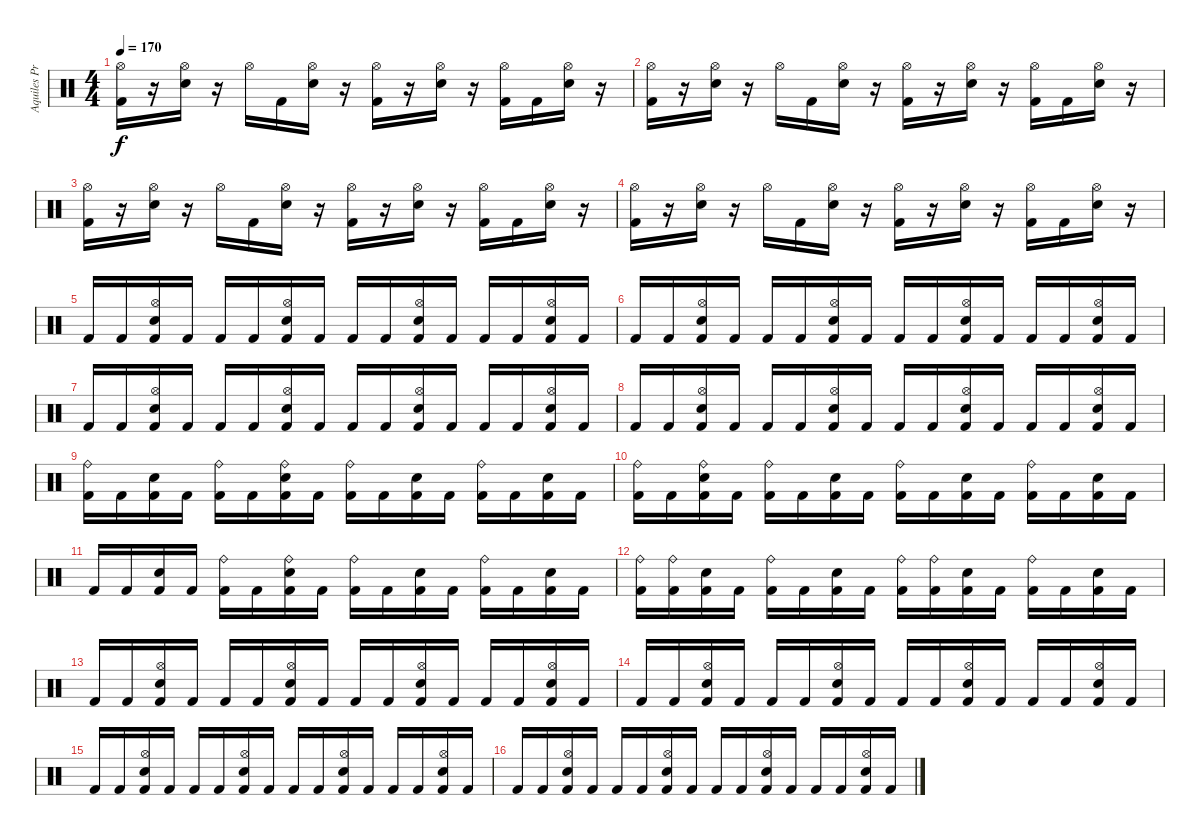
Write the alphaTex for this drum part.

\track ("Aquiles Priester" "Aquiles Pr") {instrument percussion}
\staff {score}
\articulation defaults
\ts (4 4)
\tempo 170
\clef neutral
\ks c
("Kick (hit) 2" "Hi-Hat (open)").16{dy f} r.16 ("Snare (hit) 2" "Hi-Hat (open)").16 r.16 "Hi-Hat (open)".16 "Kick (hit) 2".16 ("Snare (hit) 2" "Hi-Hat (open)").16 r.16 ("Kick (hit) 2" "Hi-Hat (open)").16 r.16 ("Snare (hit) 2" "Hi-Hat (open)").16 r.16 ("Kick (hit) 2" "Hi-Hat (open)").16 "Kick (hit) 2".16 ("Snare (hit) 2" "Hi-Hat (open)").16 r.16 |
("Kick (hit) 2" "Hi-Hat (open)").16 r.16 ("Snare (hit) 2" "Hi-Hat (open)").16 r.16 "Hi-Hat (open)".16 "Kick (hit) 2".16 ("Snare (hit) 2" "Hi-Hat (open)").16 r.16 ("Kick (hit) 2" "Hi-Hat (open)").16 r.16 ("Snare (hit) 2" "Hi-Hat (open)").16 r.16 ("Kick (hit) 2" "Hi-Hat (open)").16 "Kick (hit) 2".16 ("Snare (hit) 2" "Hi-Hat (open)").16 r.16 |
("Kick (hit) 2" "Hi-Hat (open)").16 r.16 ("Snare (hit) 2" "Hi-Hat (open)").16 r.16 "Hi-Hat (open)".16 "Kick (hit) 2".16 ("Snare (hit) 2" "Hi-Hat (open)").16 r.16 ("Kick (hit) 2" "Hi-Hat (open)").16 r.16 ("Snare (hit) 2" "Hi-Hat (open)").16 r.16 ("Kick (hit) 2" "Hi-Hat (open)").16 "Kick (hit) 2".16 ("Snare (hit) 2" "Hi-Hat (open)").16 r.16 |
("Kick (hit) 2" "Hi-Hat (open)").16 r.16 ("Snare (hit) 2" "Hi-Hat (open)").16 r.16 "Hi-Hat (open)".16 "Kick (hit) 2".16 ("Snare (hit) 2" "Hi-Hat (open)").16 r.16 ("Kick (hit) 2" "Hi-Hat (open)").16 r.16 ("Snare (hit) 2" "Hi-Hat (open)").16 r.16 ("Kick (hit) 2" "Hi-Hat (open)").16 "Kick (hit) 2".16 ("Snare (hit) 2" "Hi-Hat (open)").16 r.16 |
"Kick (hit) 2".16 "Kick (hit) 2".16 ("Kick (hit) 2" "Snare (hit) 2" "Hi-Hat (open)").16 "Kick (hit) 2".16 "Kick (hit) 2".16 "Kick (hit) 2".16 ("Kick (hit) 2" "Snare (hit) 2" "Hi-Hat (open)").16 "Kick (hit) 2".16 "Kick (hit) 2".16 "Kick (hit) 2".16 ("Kick (hit) 2" "Snare (hit) 2" "Hi-Hat (open)").16 "Kick (hit) 2".16 "Kick (hit) 2".16 "Kick (hit) 2".16 ("Kick (hit) 2" "Snare (hit) 2" "Hi-Hat (open)").16 "Kick (hit) 2".16 |
"Kick (hit) 2".16 "Kick (hit) 2".16 ("Kick (hit) 2" "Snare (hit) 2" "Hi-Hat (open)").16 "Kick (hit) 2".16 "Kick (hit) 2".16 "Kick (hit) 2".16 ("Kick (hit) 2" "Snare (hit) 2" "Hi-Hat (open)").16 "Kick (hit) 2".16 "Kick (hit) 2".16 "Kick (hit) 2".16 ("Kick (hit) 2" "Snare (hit) 2" "Hi-Hat (open)").16 "Kick (hit) 2".16 "Kick (hit) 2".16 "Kick (hit) 2".16 ("Kick (hit) 2" "Snare (hit) 2" "Hi-Hat (open)").16 "Kick (hit) 2".16 |
"Kick (hit) 2".16 "Kick (hit) 2".16 ("Kick (hit) 2" "Snare (hit) 2" "Hi-Hat (open)").16 "Kick (hit) 2".16 "Kick (hit) 2".16 "Kick (hit) 2".16 ("Kick (hit) 2" "Snare (hit) 2" "Hi-Hat (open)").16 "Kick (hit) 2".16 "Kick (hit) 2".16 "Kick (hit) 2".16 ("Kick (hit) 2" "Snare (hit) 2" "Hi-Hat (open)").16 "Kick (hit) 2".16 "Kick (hit) 2".16 "Kick (hit) 2".16 ("Kick (hit) 2" "Snare (hit) 2" "Hi-Hat (open)").16 "Kick (hit) 2".16 |
"Kick (hit) 2".16 "Kick (hit) 2".16 ("Kick (hit) 2" "Snare (hit) 2" "Hi-Hat (open)").16 "Kick (hit) 2".16 "Kick (hit) 2".16 "Kick (hit) 2".16 ("Kick (hit) 2" "Snare (hit) 2" "Hi-Hat (open)").16 "Kick (hit) 2".16 "Kick (hit) 2".16 "Kick (hit) 2".16 ("Kick (hit) 2" "Snare (hit) 2" "Hi-Hat (open)").16 "Kick (hit) 2".16 "Kick (hit) 2".16 "Kick (hit) 2".16 ("Kick (hit) 2" "Snare (hit) 2" "Hi-Hat (open)").16 "Kick (hit) 2".16 |
("Kick (hit) 2" "Ride (bell)").16 "Kick (hit) 2".16 ("Kick (hit) 2" "Snare (hit) 2").16 "Kick (hit) 2".16 ("Kick (hit) 2" "Ride (bell)").16 "Kick (hit) 2".16 ("Kick (hit) 2" "Snare (hit) 2" "Ride (bell)").16 "Kick (hit) 2".16 ("Kick (hit) 2" "Ride (bell)").16 "Kick (hit) 2".16 ("Kick (hit) 2" "Snare (hit) 2").16 "Kick (hit) 2".16 ("Kick (hit) 2" "Ride (bell)").16 "Kick (hit) 2".16 ("Kick (hit) 2" "Snare (hit) 2").16 "Kick (hit) 2".16 |
("Kick (hit) 2" "Ride (bell)").16 "Kick (hit) 2".16 ("Kick (hit) 2" "Snare (hit) 2" "Ride (bell)").16 "Kick (hit) 2".16 ("Kick (hit) 2" "Ride (bell)").16 "Kick (hit) 2".16 ("Kick (hit) 2" "Snare (hit) 2").16 "Kick (hit) 2".16 ("Kick (hit) 2" "Ride (bell)").16 "Kick (hit) 2".16 ("Kick (hit) 2" "Snare (hit) 2").16 "Kick (hit) 2".16 ("Kick (hit) 2" "Ride (bell)").16 "Kick (hit) 2".16 ("Kick (hit) 2" "Snare (hit) 2").16 "Kick (hit) 2".16 |
"Kick (hit) 2".16 "Kick (hit) 2".16 ("Kick (hit) 2" "Snare (hit) 2").16 "Kick (hit) 2".16 ("Kick (hit) 2" "Ride (bell)").16 "Kick (hit) 2".16 ("Kick (hit) 2" "Snare (hit) 2" "Ride (bell)").16 "Kick (hit) 2".16 ("Kick (hit) 2" "Ride (bell)").16 "Kick (hit) 2".16 ("Kick (hit) 2" "Snare (hit) 2").16 "Kick (hit) 2".16 ("Kick (hit) 2" "Ride (bell)").16 "Kick (hit) 2".16 ("Kick (hit) 2" "Snare (hit) 2").16 "Kick (hit) 2".16 |
("Kick (hit) 2" "Ride (bell)").16 ("Kick (hit) 2" "Ride (bell)").16 ("Kick (hit) 2" "Snare (hit) 2").16 "Kick (hit) 2".16 ("Kick (hit) 2" "Ride (bell)").16 "Kick (hit) 2".16 ("Kick (hit) 2" "Snare (hit) 2").16 "Kick (hit) 2".16 ("Kick (hit) 2" "Ride (bell)").16 ("Kick (hit) 2" "Ride (bell)").16 ("Kick (hit) 2" "Snare (hit) 2").16 "Kick (hit) 2".16 ("Kick (hit) 2" "Ride (bell)").16 "Kick (hit) 2".16 ("Kick (hit) 2" "Snare (hit) 2").16 "Kick (hit) 2".16 |
"Kick (hit) 2".16 "Kick (hit) 2".16 ("Kick (hit) 2" "Snare (hit) 2" "Hi-Hat (open)").16 "Kick (hit) 2".16 "Kick (hit) 2".16 "Kick (hit) 2".16 ("Kick (hit) 2" "Snare (hit) 2" "Hi-Hat (open)").16 "Kick (hit) 2".16 "Kick (hit) 2".16 "Kick (hit) 2".16 ("Kick (hit) 2" "Snare (hit) 2" "Hi-Hat (open)").16 "Kick (hit) 2".16 "Kick (hit) 2".16 "Kick (hit) 2".16 ("Kick (hit) 2" "Snare (hit) 2" "Hi-Hat (open)").16 "Kick (hit) 2".16 |
"Kick (hit) 2".16 "Kick (hit) 2".16 ("Kick (hit) 2" "Snare (hit) 2" "Hi-Hat (open)").16 "Kick (hit) 2".16 "Kick (hit) 2".16 "Kick (hit) 2".16 ("Kick (hit) 2" "Snare (hit) 2" "Hi-Hat (open)").16 "Kick (hit) 2".16 "Kick (hit) 2".16 "Kick (hit) 2".16 ("Kick (hit) 2" "Snare (hit) 2" "Hi-Hat (open)").16 "Kick (hit) 2".16 "Kick (hit) 2".16 "Kick (hit) 2".16 ("Kick (hit) 2" "Snare (hit) 2" "Hi-Hat (open)").16 "Kick (hit) 2".16 |
"Kick (hit) 2".16 "Kick (hit) 2".16 ("Kick (hit) 2" "Snare (hit) 2" "Hi-Hat (open)").16 "Kick (hit) 2".16 "Kick (hit) 2".16 "Kick (hit) 2".16 ("Kick (hit) 2" "Snare (hit) 2" "Hi-Hat (open)").16 "Kick (hit) 2".16 "Kick (hit) 2".16 "Kick (hit) 2".16 ("Kick (hit) 2" "Snare (hit) 2" "Hi-Hat (open)").16 "Kick (hit) 2".16 "Kick (hit) 2".16 "Kick (hit) 2".16 ("Kick (hit) 2" "Snare (hit) 2" "Hi-Hat (open)").16 "Kick (hit) 2".16 |
"Kick (hit) 2".16 "Kick (hit) 2".16 ("Kick (hit) 2" "Snare (hit) 2" "Hi-Hat (open)").16 "Kick (hit) 2".16 "Kick (hit) 2".16 "Kick (hit) 2".16 ("Kick (hit) 2" "Snare (hit) 2" "Hi-Hat (open)").16 "Kick (hit) 2".16 "Kick (hit) 2".16 "Kick (hit) 2".16 ("Kick (hit) 2" "Snare (hit) 2" "Hi-Hat (open)").16 "Kick (hit) 2".16 "Kick (hit) 2".16 "Kick (hit) 2".16 ("Kick (hit) 2" "Snare (hit) 2" "Hi-Hat (open)").16 "Kick (hit) 2".16
